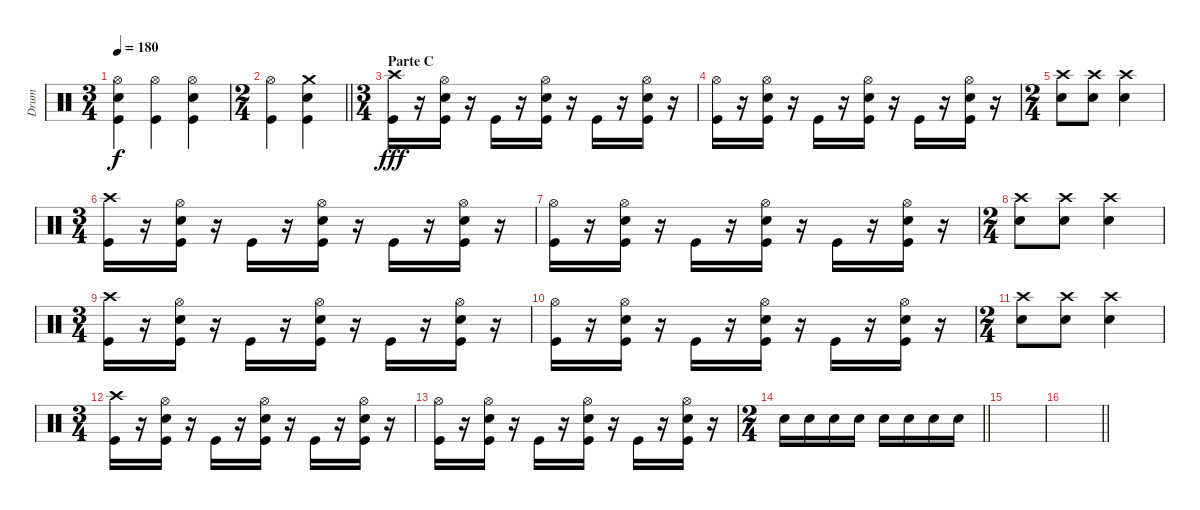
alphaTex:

\track ("Drum" "Drum") {instrument percussion}
\staff {score}
\articulation defaults
\ts (3 4)
\tempo 180
\clef neutral
\ks c
("Hi-Hat (open)" "Snare (hit) 2" "Kick (hit)").4{dy f} ("Hi-Hat (open)" "Kick (hit)").4 ("Hi-Hat (open)" "Snare (hit) 2" "Kick (hit)").4 |
\ts (2 4)
\barLineRight lightlight
("Hi-Hat (open)" "Kick (hit)").4 ("Crash medium (hit)" "Snare (hit) 2" "Kick (hit)").4 |
\ts (3 4)
\section ("" "Parte C")
("Crash high (hit)" "Kick (hit)").16{dy fff} r.16 ("Hi-Hat (open)" "Snare (hit) 2" "Kick (hit)").16 r.16 "Kick (hit)".16 r.16 ("Hi-Hat (open)" "Snare (hit) 2" "Kick (hit)").16 r.16 "Kick (hit)".16 r.16 ("Hi-Hat (open)" "Snare (hit) 2" "Kick (hit)").16 r.16 |
("Hi-Hat (open)" "Kick (hit)").16 r.16 ("Hi-Hat (open)" "Snare (hit) 2" "Kick (hit)").16 r.16 "Kick (hit)".16 r.16 ("Hi-Hat (open)" "Snare (hit) 2" "Kick (hit)").16 r.16 "Kick (hit)".16 r.16 ("Hi-Hat (open)" "Snare (hit) 2" "Kick (hit)").16 r.16 |
\ts (2 4)
("Crash high (hit)" "Snare (hit) 2").8 ("Crash high (hit)" "Snare (hit) 2").8 ("Crash high (hit)" "Snare (hit) 2").4 |
\ts (3 4)
("Crash high (hit)" "Kick (hit)").16 r.16 ("Hi-Hat (open)" "Snare (hit) 2" "Kick (hit)").16 r.16 "Kick (hit)".16 r.16 ("Hi-Hat (open)" "Snare (hit) 2" "Kick (hit)").16 r.16 "Kick (hit)".16 r.16 ("Hi-Hat (open)" "Snare (hit) 2" "Kick (hit)").16 r.16 |
("Hi-Hat (open)" "Kick (hit)").16 r.16 ("Hi-Hat (open)" "Snare (hit) 2" "Kick (hit)").16 r.16 "Kick (hit)".16 r.16 ("Hi-Hat (open)" "Snare (hit) 2" "Kick (hit)").16 r.16 "Kick (hit)".16 r.16 ("Hi-Hat (open)" "Snare (hit) 2" "Kick (hit)").16 r.16 |
\ts (2 4)
("Crash high (hit)" "Snare (hit) 2").8 ("Crash high (hit)" "Snare (hit) 2").8 ("Crash high (hit)" "Snare (hit) 2").4 |
\ts (3 4)
("Crash high (hit)" "Kick (hit)").16 r.16 ("Hi-Hat (open)" "Snare (hit) 2" "Kick (hit)").16 r.16 "Kick (hit)".16 r.16 ("Hi-Hat (open)" "Snare (hit) 2" "Kick (hit)").16 r.16 "Kick (hit)".16 r.16 ("Hi-Hat (open)" "Snare (hit) 2" "Kick (hit)").16 r.16 |
("Hi-Hat (open)" "Kick (hit)").16 r.16 ("Hi-Hat (open)" "Snare (hit) 2" "Kick (hit)").16 r.16 "Kick (hit)".16 r.16 ("Hi-Hat (open)" "Snare (hit) 2" "Kick (hit)").16 r.16 "Kick (hit)".16 r.16 ("Hi-Hat (open)" "Snare (hit) 2" "Kick (hit)").16 r.16 |
\ts (2 4)
("Crash high (hit)" "Snare (hit) 2").8 ("Crash high (hit)" "Snare (hit) 2").8 ("Crash high (hit)" "Snare (hit) 2").4 |
\ts (3 4)
("Crash high (hit)" "Kick (hit)").16 r.16 ("Hi-Hat (open)" "Snare (hit) 2" "Kick (hit)").16 r.16 "Kick (hit)".16 r.16 ("Hi-Hat (open)" "Snare (hit) 2" "Kick (hit)").16 r.16 "Kick (hit)".16 r.16 ("Hi-Hat (open)" "Snare (hit) 2" "Kick (hit)").16 r.16 |
("Hi-Hat (open)" "Kick (hit)").16 r.16 ("Hi-Hat (open)" "Snare (hit) 2" "Kick (hit)").16 r.16 "Kick (hit)".16 r.16 ("Hi-Hat (open)" "Snare (hit) 2" "Kick (hit)").16 r.16 "Kick (hit)".16 r.16 ("Hi-Hat (open)" "Snare (hit) 2" "Kick (hit)").16 r.16 |
\ts (2 4)
\barLineRight lightlight "Snare (hit) 2".16 "Snare (hit) 2".16 "Snare (hit) 2".16 "Snare (hit) 2".16 "Snare (hit) 2".16 "Snare (hit) 2".16 "Snare (hit) 2".16 "Snare (hit) 2".16
|
|
\barLineRight lightlight
